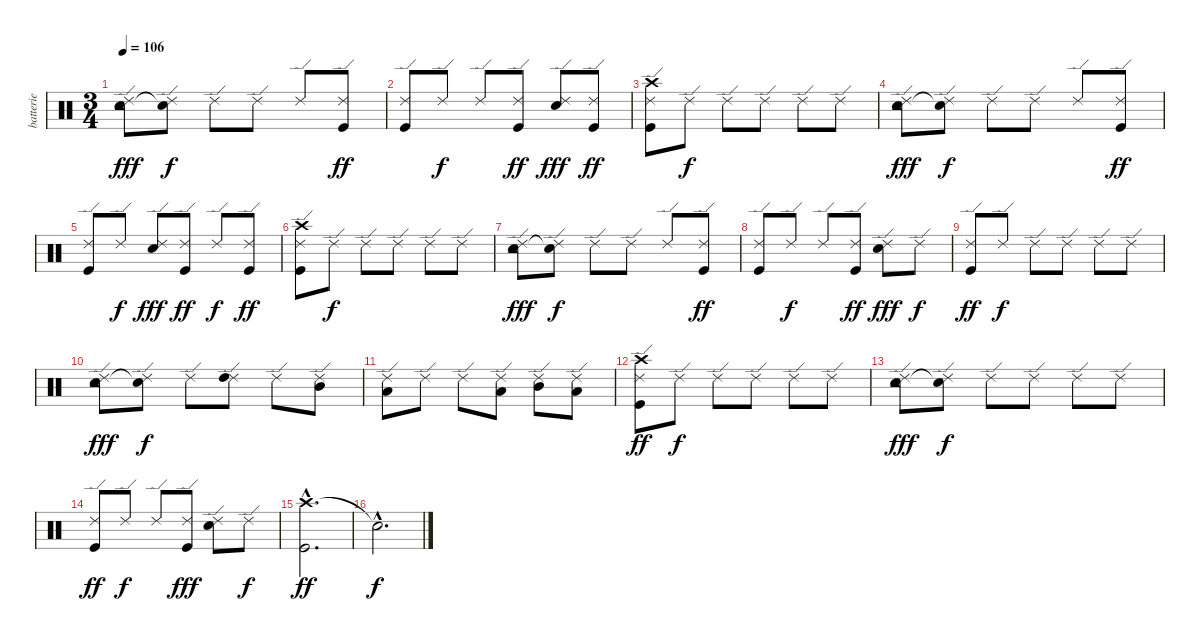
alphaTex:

\track ("batterie" "batterie") {instrument percussion}
\staff {score}
\articulation defaults
\ts (3 4)
\tempo 106
\clef neutral
\ks c
("Tambourine (hit)" "Ride (edge) 2" "Electric Snare (hit)").8{dy fff} ("Snare (hit)"{t} "Ride (edge) 2").8{dy f} "Ride (edge) 2".8 "Ride (edge) 2".8 "Ride (edge) 2".8 ("Ride (edge) 2" "Kick (hit)").8{dy ff} |
("Ride (edge) 2" "Kick (hit)").8 "Ride (edge) 2".8{dy f} "Ride (edge) 2".8 ("Ride (edge) 2" "Kick (hit)").8{dy ff} ("Ride (edge) 2" "Electric Snare (hit)").8{dy fff} ("Ride (edge) 2" "Kick (hit)").8{dy ff} |
("Crash high (hit)" "Ride (edge) 2" "Kick (hit)").8 "Ride (edge) 2".8{dy f} "Ride (edge) 2".8 "Ride (edge) 2".8 "Ride (edge) 2".8 "Ride (edge) 2".8 |
("Tambourine (hit)" "Ride (edge) 2" "Electric Snare (hit)").8{dy fff} ("Snare (hit)"{t} "Ride (edge) 2").8{dy f} "Ride (edge) 2".8 "Ride (edge) 2".8 "Ride (edge) 2".8 ("Ride (edge) 2" "Kick (hit)").8{dy ff} |
("Ride (edge) 2" "Kick (hit)").8 "Ride (edge) 2".8{dy f} ("Ride (edge) 2" "Electric Snare (hit)").8{dy fff} ("Ride (edge) 2" "Kick (hit)").8{dy ff} "Ride (edge) 2".8{dy f} ("Ride (edge) 2" "Kick (hit)").8{dy ff} |
("Crash high (hit)" "Ride (edge) 2" "Kick (hit)").8 "Ride (edge) 2".8{dy f} "Ride (edge) 2".8 "Ride (edge) 2".8 "Ride (edge) 2".8 "Ride (edge) 2".8 |
("Tambourine (hit)" "Ride (edge) 2" "Electric Snare (hit)").8{dy fff} ("Snare (hit)"{t} "Ride (edge) 2").8{dy f} "Ride (edge) 2".8 "Ride (edge) 2".8 "Ride (edge) 2".8 ("Ride (edge) 2" "Kick (hit)").8{dy ff} |
("Ride (edge) 2" "Kick (hit)").8 "Ride (edge) 2".8{dy f} "Ride (edge) 2".8 ("Ride (edge) 2" "Kick (hit)").8{dy ff} ("Ride (edge) 2" "Electric Snare (hit)").8{dy fff} "Ride (edge) 2".8{dy f} |
("Ride (edge) 2" "Kick (hit)").8{dy ff} "Ride (edge) 2".8{dy f} "Ride (edge) 2".8 "Ride (edge) 2".8 "Ride (edge) 2".8 "Ride (edge) 2".8 |
("Tambourine (hit)" "Ride (edge) 2" "Electric Snare (hit)").8{dy fff} ("Snare (hit)"{t} "Ride (edge) 2").8{dy f} "Ride (edge) 2".8 ("Ride (edge) 2" "High Tom (hit)").8 "Ride (edge) 2".8 ("Ride (edge) 2" "Mid Tom (hit)").8 |
("Ride (edge) 2" "Low Floor Tom (hit)").8 "Ride (edge) 2".8 "Ride (edge) 2".8 ("Ride (edge) 2" "Low Floor Tom (hit)").8 ("Ride (edge) 2" "Mid Tom (hit)").8 ("Ride (edge) 2" "Low Floor Tom (hit)").8 |
("Crash high (hit)" "Ride (edge) 2" "Kick (hit)").8{dy ff} "Ride (edge) 2".8{dy f} "Ride (edge) 2".8 "Ride (edge) 2".8 "Ride (edge) 2".8 "Ride (edge) 2".8 |
("Tambourine (hit)" "Ride (edge) 2" "Electric Snare (hit)").8{dy fff} ("Snare (hit)"{t} "Ride (edge) 2").8{dy f} "Ride (edge) 2".8 "Ride (edge) 2".8 "Ride (edge) 2".8 "Ride (edge) 2".8 |
("Ride (edge) 2" "Kick (hit)").8{dy ff} "Ride (edge) 2".8{dy f} "Ride (edge) 2".8 ("Ride (edge) 2" "Kick (hit)").8{dy fff} ("Ride (edge) 2" "Electric Snare (hit)").8 "Ride (edge) 2".8{dy f} |
("Crash high (hit)"{hac} "Kick (hit)"{hac}).2{d dy ff} |
"Snare (hit)"{hac t}.2{d dy f}
